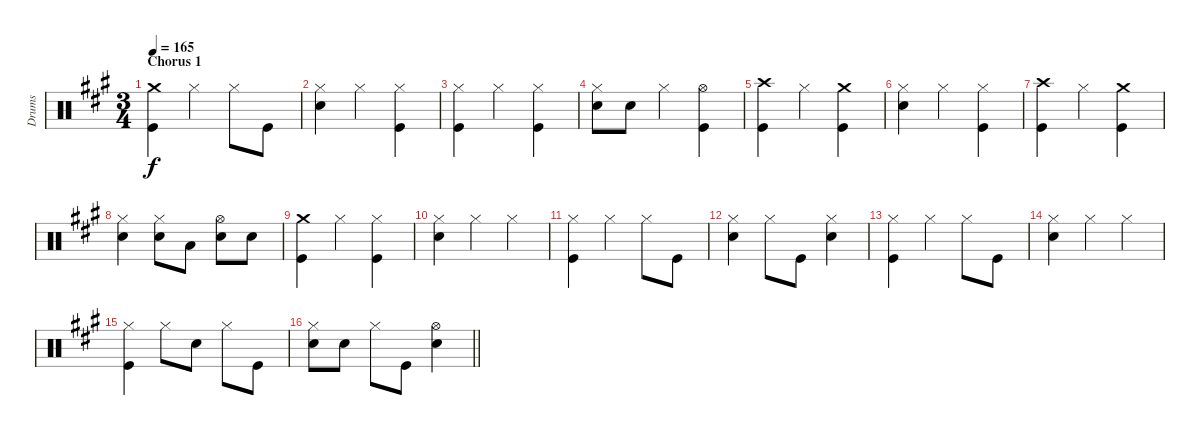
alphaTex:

\track ("Drums" "Drums") {instrument percussion}
\staff {score}
\articulation defaults
\ts (3 4)
\section ("" "Chorus 1")
\tempo 165
\clef neutral
\ks a
("Crash medium (hit)" "Kick (hit)").4{dy f} "Hi-Hat (closed)".4 "Hi-Hat (closed)".8 "Kick (hit)".8 |
("Hi-Hat (closed)" "Snare (hit) 2").4 "Hi-Hat (closed)".4 ("Hi-Hat (closed)" "Kick (hit)").4 |
("Hi-Hat (closed)" "Kick (hit)").4 "Hi-Hat (closed)".4 ("Hi-Hat (closed)" "Kick (hit)").4 |
("Hi-Hat (closed)" "Snare (hit) 2").8 "Snare (hit) 2".8 "Hi-Hat (closed)".4 ("Hi-Hat (open)" "Kick (hit)").4 |
("Crash high (hit)" "Kick (hit)").4 "Hi-Hat (closed)".4 ("Crash medium (hit)" "Kick (hit)").4 |
("Hi-Hat (closed)" "Snare (hit) 2").4 "Hi-Hat (closed)".4 ("Hi-Hat (closed)" "Kick (hit)").4 |
("Crash high (hit)" "Kick (hit)").4 "Hi-Hat (closed)".4 ("Crash medium (hit)" "Kick (hit)").4 |
("Hi-Hat (closed)" "Snare (hit) 2").4 ("Hi-Hat (closed)" "Snare (hit) 2").8 "Low Tom (hit)".8 ("Hi-Hat (open)" "Snare (hit) 2").8 "Snare (hit) 2".8 |
("Crash medium (hit)" "Kick (hit)").4 "Hi-Hat (closed)".4 ("Hi-Hat (closed)" "Kick (hit)").4 |
("Hi-Hat (closed)" "Snare (hit) 2").4 "Hi-Hat (closed)".4 "Hi-Hat (closed)".4 |
("Hi-Hat (closed)" "Kick (hit)").4 "Hi-Hat (closed)".4 "Hi-Hat (closed)".8 "Kick (hit)".8 |
("Hi-Hat (closed)" "Snare (hit) 2").4 "Hi-Hat (closed)".8 "Kick (hit)".8 ("Hi-Hat (closed)" "Snare (hit) 2").4 |
("Hi-Hat (closed)" "Kick (hit)").4 "Hi-Hat (closed)".4 "Hi-Hat (closed)".8 "Kick (hit)".8 |
("Hi-Hat (closed)" "Snare (hit) 2").4 "Hi-Hat (closed)".4 "Hi-Hat (closed)".4 |
("Hi-Hat (closed)" "Kick (hit)").4 "Hi-Hat (closed)".8 "Snare (hit) 2".8 "Hi-Hat (closed)".8 "Kick (hit)".8 |
\barLineRight lightlight
("Hi-Hat (closed)" "Snare (hit) 2").8 "Snare (hit) 2".8 "Hi-Hat (closed)".8 "Kick (hit)".8 ("Hi-Hat (open)" "Snare (hit) 2").4
